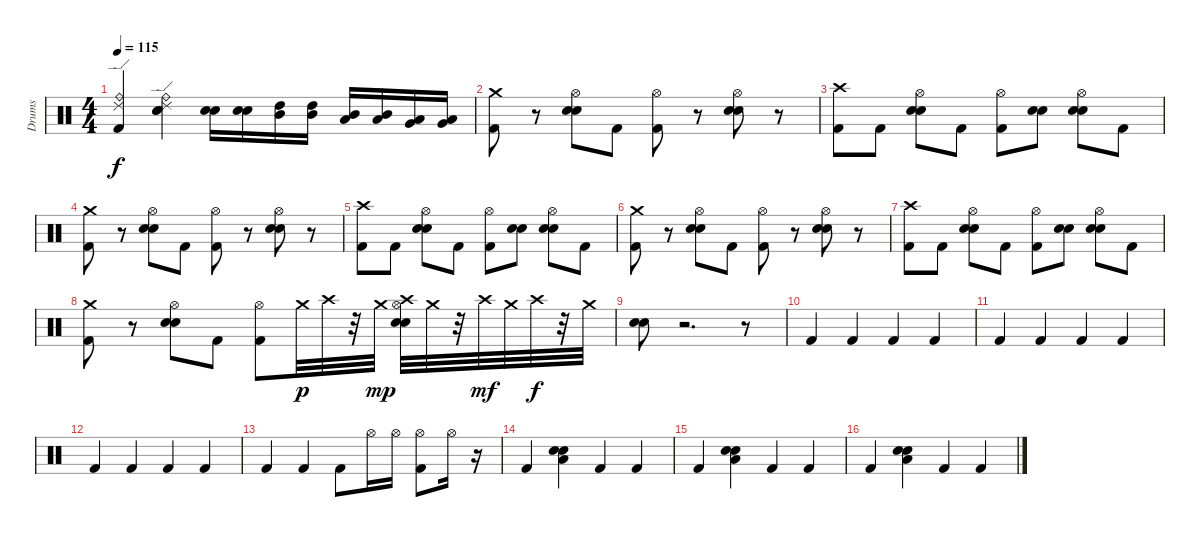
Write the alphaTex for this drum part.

\track ("Drums" "Drums") {instrument percussion}
\staff {score}
\articulation defaults
\ts (4 4)
\tempo 115
\clef neutral
\ks c
("Ride (edge) 2" "Ride (bell)" "Kick (hit) 2").4{dy f} ("Ride (edge) 2" "Ride (bell)" "Electric Snare (hit)" "Snare (hit) 2").4 ("Electric Snare (hit)" "Snare (hit) 2").16 ("Snare (hit) 2" "Electric Snare (hit)").16 ("High Tom (hit)" "Mid Tom (hit)").16 ("High Tom (hit)" "Mid Tom (hit)").16 ("Mid Tom (hit)" "Low Tom (hit)").16 ("Mid Tom (hit)" "Low Tom (hit)").16 ("Low Tom (hit)" "Very Low Tom (hit)").16 ("Low Tom (hit)" "Very Low Tom (hit)").16 |
("Crash medium (hit)" "Kick (hit) 2").8 r.8 ("Hi-Hat (open)" "Snare (hit) 2" "Electric Snare (hit)").8 "Kick (hit) 2".8 ("Hi-Hat (open)" "Kick (hit) 2").8 r.8 ("Hi-Hat (open)" "Snare (hit) 2" "Electric Snare (hit)").8 r.8 |
("Crash high (hit)" "Kick (hit) 2").8 "Kick (hit) 2".8 ("Hi-Hat (open)" "Snare (hit) 2" "Electric Snare (hit)").8 "Kick (hit) 2".8 ("Hi-Hat (open)" "Kick (hit) 2").8 ("Snare (hit) 2" "Electric Snare (hit)").8 ("Hi-Hat (open)" "Electric Snare (hit)" "Snare (hit) 2").8 "Kick (hit) 2".8 |
("Crash medium (hit)" "Kick (hit) 2").8 r.8 ("Hi-Hat (open)" "Snare (hit) 2" "Electric Snare (hit)").8 "Kick (hit) 2".8 ("Hi-Hat (open)" "Kick (hit) 2").8 r.8 ("Hi-Hat (open)" "Snare (hit) 2" "Electric Snare (hit)").8 r.8 |
("Crash high (hit)" "Kick (hit) 2").8 "Kick (hit) 2".8 ("Hi-Hat (open)" "Snare (hit) 2" "Electric Snare (hit)").8 "Kick (hit) 2".8 ("Hi-Hat (open)" "Kick (hit) 2").8 ("Snare (hit) 2" "Electric Snare (hit)").8 ("Hi-Hat (open)" "Electric Snare (hit)" "Snare (hit) 2").8 "Kick (hit) 2".8 |
("Crash medium (hit)" "Kick (hit) 2").8 r.8 ("Hi-Hat (open)" "Snare (hit) 2" "Electric Snare (hit)").8 "Kick (hit) 2".8 ("Hi-Hat (open)" "Kick (hit) 2").8 r.8 ("Hi-Hat (open)" "Snare (hit) 2" "Electric Snare (hit)").8 r.8 |
("Crash high (hit)" "Kick (hit) 2").8 "Kick (hit) 2".8 ("Hi-Hat (open)" "Snare (hit) 2" "Electric Snare (hit)").8 "Kick (hit) 2".8 ("Hi-Hat (open)" "Kick (hit) 2").8 ("Snare (hit) 2" "Electric Snare (hit)").8 ("Hi-Hat (open)" "Electric Snare (hit)" "Snare (hit) 2").8 "Kick (hit) 2".8 |
("Crash medium (hit)" "Kick (hit) 2").8 r.8 ("Hi-Hat (open)" "Electric Snare (hit)" "Snare (hit) 2").8 "Kick (hit) 2".8 ("Hi-Hat (open)" "Kick (hit) 2").8 "Crash medium (hit)".32{dy p} "Crash high (hit)".32 r.32 "Crash medium (hit)".32{dy mp} ("Crash high (hit)" "Hi-Hat (open)" "Electric Snare (hit)" "Snare (hit) 2").32 "Crash medium (hit)".32 r.32 "Crash high (hit)".32{dy mf} "Crash medium (hit)".32 "Crash high (hit)".32{dy f} r.32 "Crash medium (hit)".32 |
("Electric Snare (hit)" "Snare (hit) 2").8 r.2{d} r.8 |
"Kick (hit) 2".4 "Kick (hit) 2".4 "Kick (hit) 2".4 "Kick (hit) 2".4 |
"Kick (hit) 2".4 "Kick (hit) 2".4 "Kick (hit) 2".4 "Kick (hit) 2".4 |
"Kick (hit) 2".4 "Kick (hit) 2".4 "Kick (hit) 2".4 "Kick (hit) 2".4 |
"Kick (hit) 2".4 "Kick (hit) 2".4 "Kick (hit) 2".8 "Hi-Hat (open)".16 "Hi-Hat (open)".16 ("Hi-Hat (open)" "Kick (hit) 2").8 "Hi-Hat (open)".16 r.16 |
"Kick (hit) 2".4 ("Low Floor Tom (hit)" "Electric Snare (hit)" "Snare (hit) 2").4 "Kick (hit) 2".4 "Kick (hit) 2".4 |
"Kick (hit) 2".4 ("Low Floor Tom (hit)" "Snare (hit) 2" "Electric Snare (hit)").4 "Kick (hit) 2".4 "Kick (hit) 2".4 |
"Kick (hit) 2".4 ("Low Floor Tom (hit)" "Electric Snare (hit)" "Snare (hit) 2").4 "Kick (hit) 2".4 "Kick (hit) 2".4
